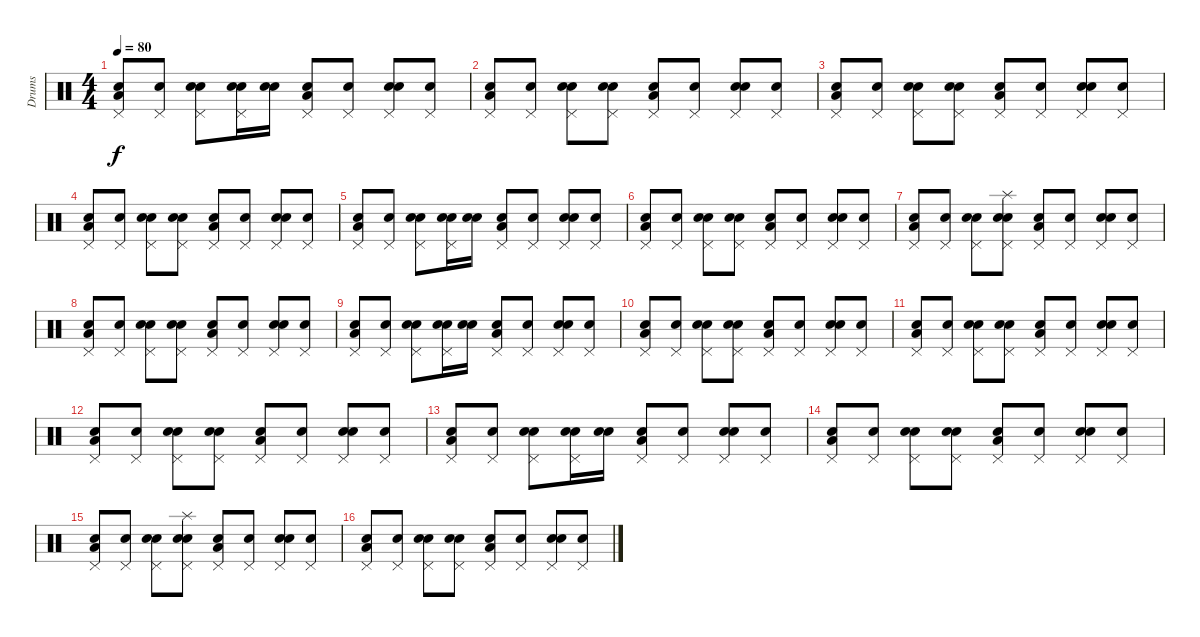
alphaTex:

\track ("Drums" "Drums") {instrument percussion}
\staff {score}
\articulation defaults
\ts (4 4)
\tempo 80
\clef neutral
\ks c
("Snare (hit)" "Low Floor Tom (hit)" "Pedal Hi-Hat (hit)").8{dy f} ("Snare (hit)" "Pedal Hi-Hat (hit)").8 ("Snare (hit)" "Electric Snare (hit)" "Pedal Hi-Hat (hit)").8 ("Snare (hit)" "Electric Snare (hit)" "Pedal Hi-Hat (hit)").16 ("Snare (hit)" "Electric Snare (hit)").16 ("Snare (hit)" "Low Floor Tom (hit)" "Pedal Hi-Hat (hit)").8 ("Snare (hit)" "Pedal Hi-Hat (hit)").8 ("Snare (hit)" "Electric Snare (hit)" "Pedal Hi-Hat (hit)").8 ("Snare (hit)" "Pedal Hi-Hat (hit)").8 |
("Snare (hit)" "Low Floor Tom (hit)" "Pedal Hi-Hat (hit)").8 ("Snare (hit)" "Pedal Hi-Hat (hit)").8 ("Snare (hit)" "Electric Snare (hit)" "Pedal Hi-Hat (hit)").8 ("Snare (hit)" "Electric Snare (hit)" "Pedal Hi-Hat (hit)").8 ("Snare (hit)" "Low Floor Tom (hit)" "Pedal Hi-Hat (hit)").8 ("Snare (hit)" "Pedal Hi-Hat (hit)").8 ("Snare (hit)" "Electric Snare (hit)" "Pedal Hi-Hat (hit)").8 ("Snare (hit)" "Pedal Hi-Hat (hit)").8 |
("Snare (hit)" "Low Floor Tom (hit)" "Pedal Hi-Hat (hit)").8 ("Snare (hit)" "Pedal Hi-Hat (hit)").8 ("Snare (hit)" "Electric Snare (hit)" "Pedal Hi-Hat (hit)").8 ("Snare (hit)" "Electric Snare (hit)" "Pedal Hi-Hat (hit)").8 ("Snare (hit)" "Low Floor Tom (hit)" "Pedal Hi-Hat (hit)").8 ("Snare (hit)" "Pedal Hi-Hat (hit)").8 ("Snare (hit)" "Electric Snare (hit)" "Pedal Hi-Hat (hit)").8 ("Snare (hit)" "Pedal Hi-Hat (hit)").8 |
("Snare (hit)" "Low Floor Tom (hit)" "Pedal Hi-Hat (hit)").8 ("Snare (hit)" "Pedal Hi-Hat (hit)").8 ("Snare (hit)" "Electric Snare (hit)" "Pedal Hi-Hat (hit)").8 ("Snare (hit)" "Electric Snare (hit)" "Pedal Hi-Hat (hit)").8 ("Snare (hit)" "Low Floor Tom (hit)" "Pedal Hi-Hat (hit)").8 ("Snare (hit)" "Pedal Hi-Hat (hit)").8 ("Snare (hit)" "Electric Snare (hit)" "Pedal Hi-Hat (hit)").8 ("Snare (hit)" "Pedal Hi-Hat (hit)").8 |
("Snare (hit)" "Low Floor Tom (hit)" "Pedal Hi-Hat (hit)").8 ("Snare (hit)" "Pedal Hi-Hat (hit)").8 ("Snare (hit)" "Electric Snare (hit)" "Pedal Hi-Hat (hit)").8 ("Snare (hit)" "Electric Snare (hit)" "Pedal Hi-Hat (hit)").16 ("Snare (hit)" "Electric Snare (hit)").16 ("Snare (hit)" "Low Floor Tom (hit)" "Pedal Hi-Hat (hit)").8 ("Snare (hit)" "Pedal Hi-Hat (hit)").8 ("Snare (hit)" "Electric Snare (hit)" "Pedal Hi-Hat (hit)").8 ("Snare (hit)" "Pedal Hi-Hat (hit)").8 |
("Snare (hit)" "Low Floor Tom (hit)" "Pedal Hi-Hat (hit)").8 ("Snare (hit)" "Pedal Hi-Hat (hit)").8 ("Snare (hit)" "Electric Snare (hit)" "Pedal Hi-Hat (hit)").8 ("Snare (hit)" "Electric Snare (hit)" "Pedal Hi-Hat (hit)").8 ("Snare (hit)" "Low Floor Tom (hit)" "Pedal Hi-Hat (hit)").8 ("Snare (hit)" "Pedal Hi-Hat (hit)").8 ("Snare (hit)" "Electric Snare (hit)" "Pedal Hi-Hat (hit)").8 ("Snare (hit)" "Pedal Hi-Hat (hit)").8 |
("Snare (hit)" "Low Floor Tom (hit)" "Pedal Hi-Hat (hit)").8 ("Snare (hit)" "Pedal Hi-Hat (hit)").8 ("Snare (hit)" "Electric Snare (hit)" "Pedal Hi-Hat (hit)").8 ("Snare (hit)" "Electric Snare (hit)" "Pedal Hi-Hat (hit)" "Splash (hit)").8 ("Snare (hit)" "Low Floor Tom (hit)" "Pedal Hi-Hat (hit)").8 ("Snare (hit)" "Pedal Hi-Hat (hit)").8 ("Snare (hit)" "Electric Snare (hit)" "Pedal Hi-Hat (hit)").8 ("Snare (hit)" "Pedal Hi-Hat (hit)").8 |
("Snare (hit)" "Low Floor Tom (hit)" "Pedal Hi-Hat (hit)").8 ("Snare (hit)" "Pedal Hi-Hat (hit)").8 ("Snare (hit)" "Electric Snare (hit)" "Pedal Hi-Hat (hit)").8 ("Snare (hit)" "Electric Snare (hit)" "Pedal Hi-Hat (hit)").8 ("Snare (hit)" "Low Floor Tom (hit)" "Pedal Hi-Hat (hit)").8 ("Snare (hit)" "Pedal Hi-Hat (hit)").8 ("Snare (hit)" "Electric Snare (hit)" "Pedal Hi-Hat (hit)").8 ("Snare (hit)" "Pedal Hi-Hat (hit)").8 |
("Snare (hit)" "Low Floor Tom (hit)" "Pedal Hi-Hat (hit)").8 ("Snare (hit)" "Pedal Hi-Hat (hit)").8 ("Snare (hit)" "Electric Snare (hit)" "Pedal Hi-Hat (hit)").8 ("Snare (hit)" "Electric Snare (hit)" "Pedal Hi-Hat (hit)").16 ("Snare (hit)" "Electric Snare (hit)").16 ("Snare (hit)" "Low Floor Tom (hit)" "Pedal Hi-Hat (hit)").8 ("Snare (hit)" "Pedal Hi-Hat (hit)").8 ("Snare (hit)" "Electric Snare (hit)" "Pedal Hi-Hat (hit)").8 ("Snare (hit)" "Pedal Hi-Hat (hit)").8 |
("Snare (hit)" "Low Floor Tom (hit)" "Pedal Hi-Hat (hit)").8 ("Snare (hit)" "Pedal Hi-Hat (hit)").8 ("Snare (hit)" "Electric Snare (hit)" "Pedal Hi-Hat (hit)").8 ("Snare (hit)" "Electric Snare (hit)" "Pedal Hi-Hat (hit)").8 ("Snare (hit)" "Low Floor Tom (hit)" "Pedal Hi-Hat (hit)").8 ("Snare (hit)" "Pedal Hi-Hat (hit)").8 ("Snare (hit)" "Electric Snare (hit)" "Pedal Hi-Hat (hit)").8 ("Snare (hit)" "Pedal Hi-Hat (hit)").8 |
("Snare (hit)" "Low Floor Tom (hit)" "Pedal Hi-Hat (hit)").8 ("Snare (hit)" "Pedal Hi-Hat (hit)").8 ("Snare (hit)" "Electric Snare (hit)" "Pedal Hi-Hat (hit)").8 ("Snare (hit)" "Electric Snare (hit)" "Pedal Hi-Hat (hit)").8 ("Snare (hit)" "Low Floor Tom (hit)" "Pedal Hi-Hat (hit)").8 ("Snare (hit)" "Pedal Hi-Hat (hit)").8 ("Snare (hit)" "Electric Snare (hit)" "Pedal Hi-Hat (hit)").8 ("Snare (hit)" "Pedal Hi-Hat (hit)").8 |
("Snare (hit)" "Low Floor Tom (hit)" "Pedal Hi-Hat (hit)").8 ("Snare (hit)" "Pedal Hi-Hat (hit)").8 ("Snare (hit)" "Electric Snare (hit)" "Pedal Hi-Hat (hit)").8 ("Snare (hit)" "Electric Snare (hit)" "Pedal Hi-Hat (hit)").8 ("Snare (hit)" "Low Floor Tom (hit)" "Pedal Hi-Hat (hit)").8 ("Snare (hit)" "Pedal Hi-Hat (hit)").8 ("Snare (hit)" "Electric Snare (hit)" "Pedal Hi-Hat (hit)").8 ("Snare (hit)" "Pedal Hi-Hat (hit)").8 |
("Snare (hit)" "Low Floor Tom (hit)" "Pedal Hi-Hat (hit)").8 ("Snare (hit)" "Pedal Hi-Hat (hit)").8 ("Snare (hit)" "Electric Snare (hit)" "Pedal Hi-Hat (hit)").8 ("Snare (hit)" "Electric Snare (hit)" "Pedal Hi-Hat (hit)").16 ("Snare (hit)" "Electric Snare (hit)").16 ("Snare (hit)" "Low Floor Tom (hit)" "Pedal Hi-Hat (hit)").8 ("Snare (hit)" "Pedal Hi-Hat (hit)").8 ("Snare (hit)" "Electric Snare (hit)" "Pedal Hi-Hat (hit)").8 ("Snare (hit)" "Pedal Hi-Hat (hit)").8 |
("Snare (hit)" "Low Floor Tom (hit)" "Pedal Hi-Hat (hit)").8 ("Snare (hit)" "Pedal Hi-Hat (hit)").8 ("Snare (hit)" "Electric Snare (hit)" "Pedal Hi-Hat (hit)").8 ("Snare (hit)" "Electric Snare (hit)" "Pedal Hi-Hat (hit)").8 ("Snare (hit)" "Low Floor Tom (hit)" "Pedal Hi-Hat (hit)").8 ("Snare (hit)" "Pedal Hi-Hat (hit)").8 ("Snare (hit)" "Electric Snare (hit)" "Pedal Hi-Hat (hit)").8 ("Snare (hit)" "Pedal Hi-Hat (hit)").8 |
("Snare (hit)" "Low Floor Tom (hit)" "Pedal Hi-Hat (hit)").8 ("Snare (hit)" "Pedal Hi-Hat (hit)").8 ("Snare (hit)" "Electric Snare (hit)" "Pedal Hi-Hat (hit)").8 ("Snare (hit)" "Electric Snare (hit)" "Pedal Hi-Hat (hit)" "Splash (hit)").8 ("Snare (hit)" "Low Floor Tom (hit)" "Pedal Hi-Hat (hit)").8 ("Snare (hit)" "Pedal Hi-Hat (hit)").8 ("Snare (hit)" "Electric Snare (hit)" "Pedal Hi-Hat (hit)").8 ("Snare (hit)" "Pedal Hi-Hat (hit)").8 |
("Snare (hit)" "Low Floor Tom (hit)" "Pedal Hi-Hat (hit)").8 ("Snare (hit)" "Pedal Hi-Hat (hit)").8 ("Snare (hit)" "Electric Snare (hit)" "Pedal Hi-Hat (hit)").8 ("Snare (hit)" "Electric Snare (hit)" "Pedal Hi-Hat (hit)").8 ("Snare (hit)" "Low Floor Tom (hit)" "Pedal Hi-Hat (hit)").8 ("Snare (hit)" "Pedal Hi-Hat (hit)").8 ("Snare (hit)" "Electric Snare (hit)" "Pedal Hi-Hat (hit)").8 ("Snare (hit)" "Pedal Hi-Hat (hit)").8
